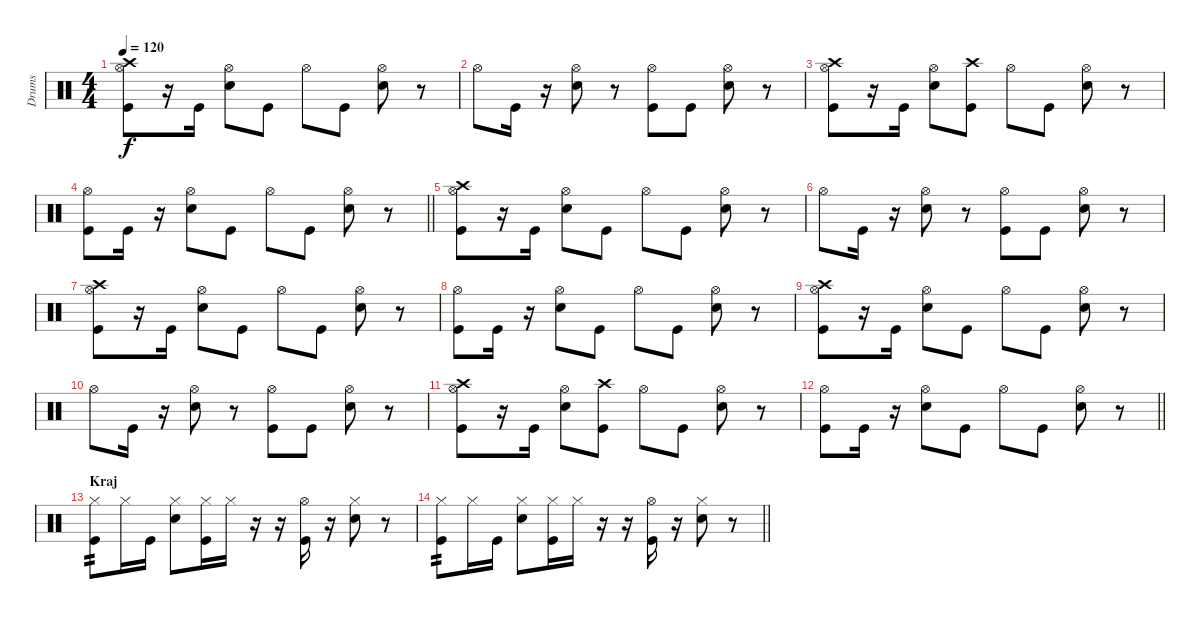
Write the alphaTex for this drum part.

\track ("Drums" "Drums") {instrument percussion}
\staff {score}
\articulation defaults
\ts (4 4)
\tempo 120
\clef neutral
\ks c
("Kick (hit)" "Hi-Hat (open)" "Crash high (hit)").8{dy f} r.16 "Kick (hit)".16 ("Snare (hit) 2" "Hi-Hat (open)").8 "Kick (hit)".8 "Hi-Hat (open)".8 "Kick (hit)".8 ("Snare (hit) 2" "Hi-Hat (open)").8 r.8 |
"Hi-Hat (open)".8 "Kick (hit)".16 r.16 ("Snare (hit) 2" "Hi-Hat (open)").8 r.8 ("Kick (hit)" "Hi-Hat (open)").8 "Kick (hit)".8 ("Snare (hit) 2" "Hi-Hat (open)").8 r.8 |
("Kick (hit)" "Hi-Hat (open)" "Crash high (hit)").8 r.16 "Kick (hit)".16 ("Snare (hit) 2" "Hi-Hat (open)").8 ("Kick (hit)" "Crash high (hit)").8 "Hi-Hat (open)".8 "Kick (hit)".8 ("Snare (hit) 2" "Hi-Hat (open)").8 r.8 |
\barLineRight lightlight
("Kick (hit)" "Hi-Hat (open)").8 "Kick (hit)".16 r.16 ("Snare (hit) 2" "Hi-Hat (open)").8 "Kick (hit)".8 "Hi-Hat (open)".8 "Kick (hit)".8 ("Snare (hit) 2" "Hi-Hat (open)").8 r.8 |
("Kick (hit)" "Hi-Hat (open)" "Crash high (hit)").8 r.16 "Kick (hit)".16 ("Snare (hit) 2" "Hi-Hat (open)").8 "Kick (hit)".8 "Hi-Hat (open)".8 "Kick (hit)".8 ("Snare (hit) 2" "Hi-Hat (open)").8 r.8 |
"Hi-Hat (open)".8 "Kick (hit)".16 r.16 ("Snare (hit) 2" "Hi-Hat (open)").8 r.8 ("Kick (hit)" "Hi-Hat (open)").8 "Kick (hit)".8 ("Snare (hit) 2" "Hi-Hat (open)").8 r.8 |
("Kick (hit)" "Hi-Hat (open)" "Crash high (hit)").8 r.16 "Kick (hit)".16 ("Snare (hit) 2" "Hi-Hat (open)").8 "Kick (hit)".8 "Hi-Hat (open)".8 "Kick (hit)".8 ("Snare (hit) 2" "Hi-Hat (open)").8 r.8 |
("Kick (hit)" "Hi-Hat (open)").8 "Kick (hit)".16 r.16 ("Snare (hit) 2" "Hi-Hat (open)").8 "Kick (hit)".8 "Hi-Hat (open)".8 "Kick (hit)".8 ("Snare (hit) 2" "Hi-Hat (open)").8 r.8 |
("Kick (hit)" "Hi-Hat (open)" "Crash high (hit)").8 r.16 "Kick (hit)".16 ("Snare (hit) 2" "Hi-Hat (open)").8 "Kick (hit)".8 "Hi-Hat (open)".8 "Kick (hit)".8 ("Snare (hit) 2" "Hi-Hat (open)").8 r.8 |
"Hi-Hat (open)".8 "Kick (hit)".16 r.16 ("Snare (hit) 2" "Hi-Hat (open)").8 r.8 ("Kick (hit)" "Hi-Hat (open)").8 "Kick (hit)".8 ("Snare (hit) 2" "Hi-Hat (open)").8 r.8 |
("Kick (hit)" "Hi-Hat (open)" "Crash high (hit)").8 r.16 "Kick (hit)".16 ("Snare (hit) 2" "Hi-Hat (open)").8 ("Kick (hit)" "Crash high (hit)").8 "Hi-Hat (open)".8 "Kick (hit)".8 ("Snare (hit) 2" "Hi-Hat (open)").8 r.8 |
\barLineRight lightlight
("Kick (hit)" "Hi-Hat (open)").8 "Kick (hit)".16 r.16 ("Snare (hit) 2" "Hi-Hat (open)").8 "Kick (hit)".8 "Hi-Hat (open)".8 "Kick (hit)".8 ("Snare (hit) 2" "Hi-Hat (open)").8 r.8 |
\section ("" "Kraj")
("Kick (hit)" "Hi-Hat (closed)").8{tp 2} "Hi-Hat (closed)".16 "Kick (hit)".16 ("Snare (hit) 2" "Hi-Hat (closed)").8 ("Kick (hit)" "Hi-Hat (closed)").16 "Hi-Hat (closed)".16 r.16 r.16 ("Kick (hit)" "Hi-Hat (open)").16 r.16 ("Snare (hit) 2" "Hi-Hat (closed)").8 r.8 |
\barLineRight lightlight
("Kick (hit)" "Hi-Hat (closed)").8{tp 2} "Hi-Hat (closed)".16 "Kick (hit)".16 ("Snare (hit) 2" "Hi-Hat (closed)").8 ("Kick (hit)" "Hi-Hat (closed)").16 "Hi-Hat (closed)".16 r.16 r.16 ("Kick (hit)" "Hi-Hat (open)").16 r.16 ("Snare (hit) 2" "Hi-Hat (closed)").8 r.8
